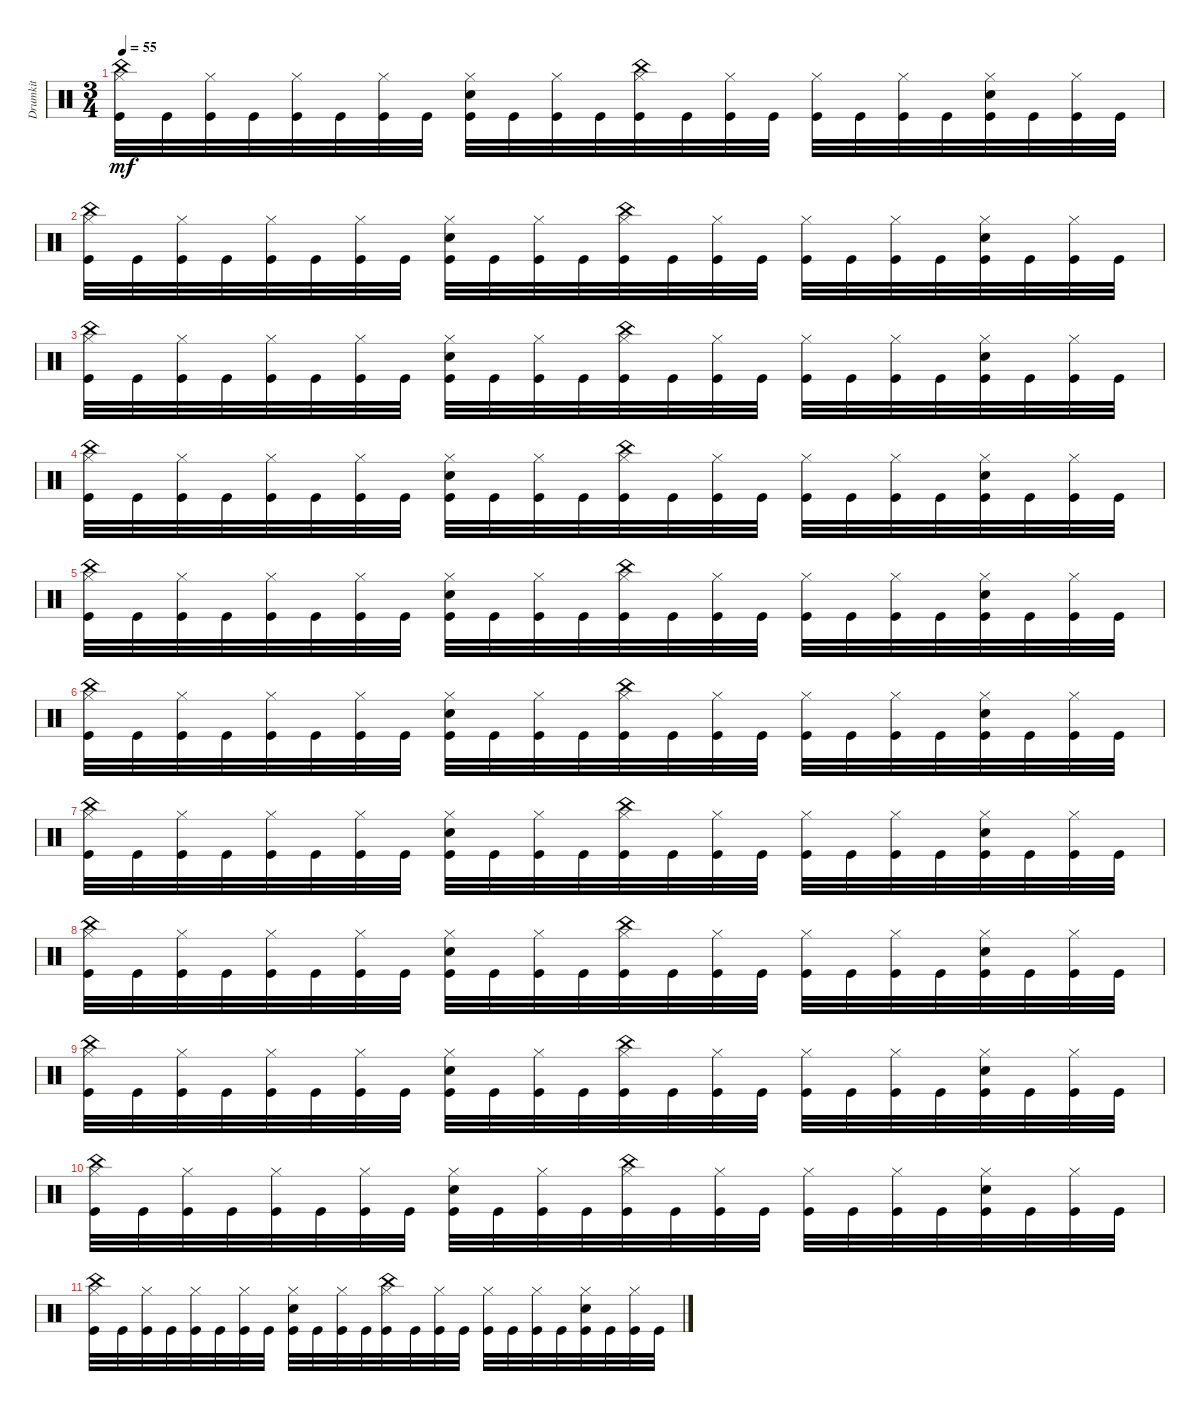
\track ("Drumkit" "Drumkit") {instrument percussion}
\staff {score}
\articulation defaults
\ts (3 4)
\tempo 55
\clef neutral
\ks c
("Kick (hit)" "Hi-Hat (closed)" "China (hit)").32{dy mf} "Kick (hit)".32 ("Kick (hit)" "Hi-Hat (closed)").32 "Kick (hit)".32 ("Kick (hit)" "Hi-Hat (closed)").32 "Kick (hit)".32 ("Kick (hit)" "Hi-Hat (closed)").32 "Kick (hit)".32 ("Kick (hit)" "Hi-Hat (closed)" "Snare (hit) 2").32 "Kick (hit)".32 ("Kick (hit)" "Hi-Hat (closed)").32 "Kick (hit)".32 ("Kick (hit)" "Hi-Hat (closed)" "China (hit)").32 "Kick (hit)".32 ("Kick (hit)" "Hi-Hat (closed)").32 "Kick (hit)".32 ("Kick (hit)" "Hi-Hat (closed)").32 "Kick (hit)".32 ("Kick (hit)" "Hi-Hat (closed)").32 "Kick (hit)".32 ("Kick (hit)" "Hi-Hat (closed)" "Snare (hit) 2").32 "Kick (hit)".32 ("Kick (hit)" "Hi-Hat (closed)").32 "Kick (hit)".32 |
("Kick (hit)" "Hi-Hat (closed)" "China (hit)").32 "Kick (hit)".32 ("Kick (hit)" "Hi-Hat (closed)").32 "Kick (hit)".32 ("Kick (hit)" "Hi-Hat (closed)").32 "Kick (hit)".32 ("Kick (hit)" "Hi-Hat (closed)").32 "Kick (hit)".32 ("Kick (hit)" "Hi-Hat (closed)" "Snare (hit) 2").32 "Kick (hit)".32 ("Kick (hit)" "Hi-Hat (closed)").32 "Kick (hit)".32 ("Kick (hit)" "Hi-Hat (closed)" "China (hit)").32 "Kick (hit)".32 ("Kick (hit)" "Hi-Hat (closed)").32 "Kick (hit)".32 ("Kick (hit)" "Hi-Hat (closed)").32 "Kick (hit)".32 ("Kick (hit)" "Hi-Hat (closed)").32 "Kick (hit)".32 ("Kick (hit)" "Hi-Hat (closed)" "Snare (hit) 2").32 "Kick (hit)".32 ("Kick (hit)" "Hi-Hat (closed)").32 "Kick (hit)".32 |
("Kick (hit)" "Hi-Hat (closed)" "China (hit)").32 "Kick (hit)".32 ("Kick (hit)" "Hi-Hat (closed)").32 "Kick (hit)".32 ("Kick (hit)" "Hi-Hat (closed)").32 "Kick (hit)".32 ("Kick (hit)" "Hi-Hat (closed)").32 "Kick (hit)".32 ("Kick (hit)" "Hi-Hat (closed)" "Snare (hit) 2").32 "Kick (hit)".32 ("Kick (hit)" "Hi-Hat (closed)").32 "Kick (hit)".32 ("Kick (hit)" "Hi-Hat (closed)" "China (hit)").32 "Kick (hit)".32 ("Kick (hit)" "Hi-Hat (closed)").32 "Kick (hit)".32 ("Kick (hit)" "Hi-Hat (closed)").32 "Kick (hit)".32 ("Kick (hit)" "Hi-Hat (closed)").32 "Kick (hit)".32 ("Kick (hit)" "Hi-Hat (closed)" "Snare (hit) 2").32 "Kick (hit)".32 ("Kick (hit)" "Hi-Hat (closed)").32 "Kick (hit)".32 |
("Kick (hit)" "Hi-Hat (closed)" "China (hit)").32 "Kick (hit)".32 ("Kick (hit)" "Hi-Hat (closed)").32 "Kick (hit)".32 ("Kick (hit)" "Hi-Hat (closed)").32 "Kick (hit)".32 ("Kick (hit)" "Hi-Hat (closed)").32 "Kick (hit)".32 ("Kick (hit)" "Hi-Hat (closed)" "Snare (hit) 2").32 "Kick (hit)".32 ("Kick (hit)" "Hi-Hat (closed)").32 "Kick (hit)".32 ("Kick (hit)" "Hi-Hat (closed)" "China (hit)").32 "Kick (hit)".32 ("Kick (hit)" "Hi-Hat (closed)").32 "Kick (hit)".32 ("Kick (hit)" "Hi-Hat (closed)").32 "Kick (hit)".32 ("Kick (hit)" "Hi-Hat (closed)").32 "Kick (hit)".32 ("Kick (hit)" "Hi-Hat (closed)" "Snare (hit) 2").32 "Kick (hit)".32 ("Kick (hit)" "Hi-Hat (closed)").32 "Kick (hit)".32 |
("Kick (hit)" "Hi-Hat (closed)" "China (hit)").32 "Kick (hit)".32 ("Kick (hit)" "Hi-Hat (closed)").32 "Kick (hit)".32 ("Kick (hit)" "Hi-Hat (closed)").32 "Kick (hit)".32 ("Kick (hit)" "Hi-Hat (closed)").32 "Kick (hit)".32 ("Kick (hit)" "Hi-Hat (closed)" "Snare (hit) 2").32 "Kick (hit)".32 ("Kick (hit)" "Hi-Hat (closed)").32 "Kick (hit)".32 ("Kick (hit)" "Hi-Hat (closed)" "China (hit)").32 "Kick (hit)".32 ("Kick (hit)" "Hi-Hat (closed)").32 "Kick (hit)".32 ("Kick (hit)" "Hi-Hat (closed)").32 "Kick (hit)".32 ("Kick (hit)" "Hi-Hat (closed)").32 "Kick (hit)".32 ("Kick (hit)" "Hi-Hat (closed)" "Snare (hit) 2").32 "Kick (hit)".32 ("Kick (hit)" "Hi-Hat (closed)").32 "Kick (hit)".32 |
("Kick (hit)" "Hi-Hat (closed)" "China (hit)").32 "Kick (hit)".32 ("Kick (hit)" "Hi-Hat (closed)").32 "Kick (hit)".32 ("Kick (hit)" "Hi-Hat (closed)").32 "Kick (hit)".32 ("Kick (hit)" "Hi-Hat (closed)").32 "Kick (hit)".32 ("Kick (hit)" "Hi-Hat (closed)" "Snare (hit) 2").32 "Kick (hit)".32 ("Kick (hit)" "Hi-Hat (closed)").32 "Kick (hit)".32 ("Kick (hit)" "Hi-Hat (closed)" "China (hit)").32 "Kick (hit)".32 ("Kick (hit)" "Hi-Hat (closed)").32 "Kick (hit)".32 ("Kick (hit)" "Hi-Hat (closed)").32 "Kick (hit)".32 ("Kick (hit)" "Hi-Hat (closed)").32 "Kick (hit)".32 ("Kick (hit)" "Hi-Hat (closed)" "Snare (hit) 2").32 "Kick (hit)".32 ("Kick (hit)" "Hi-Hat (closed)").32 "Kick (hit)".32 |
("Kick (hit)" "Hi-Hat (closed)" "China (hit)").32 "Kick (hit)".32 ("Kick (hit)" "Hi-Hat (closed)").32 "Kick (hit)".32 ("Kick (hit)" "Hi-Hat (closed)").32 "Kick (hit)".32 ("Kick (hit)" "Hi-Hat (closed)").32 "Kick (hit)".32 ("Kick (hit)" "Hi-Hat (closed)" "Snare (hit) 2").32 "Kick (hit)".32 ("Kick (hit)" "Hi-Hat (closed)").32 "Kick (hit)".32 ("Kick (hit)" "Hi-Hat (closed)" "China (hit)").32 "Kick (hit)".32 ("Kick (hit)" "Hi-Hat (closed)").32 "Kick (hit)".32 ("Kick (hit)" "Hi-Hat (closed)").32 "Kick (hit)".32 ("Kick (hit)" "Hi-Hat (closed)").32 "Kick (hit)".32 ("Kick (hit)" "Hi-Hat (closed)" "Snare (hit) 2").32 "Kick (hit)".32 ("Kick (hit)" "Hi-Hat (closed)").32 "Kick (hit)".32 |
("Kick (hit)" "Hi-Hat (closed)" "China (hit)").32 "Kick (hit)".32 ("Kick (hit)" "Hi-Hat (closed)").32 "Kick (hit)".32 ("Kick (hit)" "Hi-Hat (closed)").32 "Kick (hit)".32 ("Kick (hit)" "Hi-Hat (closed)").32 "Kick (hit)".32 ("Kick (hit)" "Hi-Hat (closed)" "Snare (hit) 2").32 "Kick (hit)".32 ("Kick (hit)" "Hi-Hat (closed)").32 "Kick (hit)".32 ("Kick (hit)" "Hi-Hat (closed)" "China (hit)").32 "Kick (hit)".32 ("Kick (hit)" "Hi-Hat (closed)").32 "Kick (hit)".32 ("Kick (hit)" "Hi-Hat (closed)").32 "Kick (hit)".32 ("Kick (hit)" "Hi-Hat (closed)").32 "Kick (hit)".32 ("Kick (hit)" "Hi-Hat (closed)" "Snare (hit) 2").32 "Kick (hit)".32 ("Kick (hit)" "Hi-Hat (closed)").32 "Kick (hit)".32 |
("Kick (hit)" "Hi-Hat (closed)" "China (hit)").32 "Kick (hit)".32 ("Kick (hit)" "Hi-Hat (closed)").32 "Kick (hit)".32 ("Kick (hit)" "Hi-Hat (closed)").32 "Kick (hit)".32 ("Kick (hit)" "Hi-Hat (closed)").32 "Kick (hit)".32 ("Kick (hit)" "Hi-Hat (closed)" "Snare (hit) 2").32 "Kick (hit)".32 ("Kick (hit)" "Hi-Hat (closed)").32 "Kick (hit)".32 ("Kick (hit)" "Hi-Hat (closed)" "China (hit)").32 "Kick (hit)".32 ("Kick (hit)" "Hi-Hat (closed)").32 "Kick (hit)".32 ("Kick (hit)" "Hi-Hat (closed)").32 "Kick (hit)".32 ("Kick (hit)" "Hi-Hat (closed)").32 "Kick (hit)".32 ("Kick (hit)" "Hi-Hat (closed)" "Snare (hit) 2").32 "Kick (hit)".32 ("Kick (hit)" "Hi-Hat (closed)").32 "Kick (hit)".32 |
("Kick (hit)" "Hi-Hat (closed)" "China (hit)").32 "Kick (hit)".32 ("Kick (hit)" "Hi-Hat (closed)").32 "Kick (hit)".32 ("Kick (hit)" "Hi-Hat (closed)").32 "Kick (hit)".32 ("Kick (hit)" "Hi-Hat (closed)").32 "Kick (hit)".32 ("Kick (hit)" "Hi-Hat (closed)" "Snare (hit) 2").32 "Kick (hit)".32 ("Kick (hit)" "Hi-Hat (closed)").32 "Kick (hit)".32 ("Kick (hit)" "Hi-Hat (closed)" "China (hit)").32 "Kick (hit)".32 ("Kick (hit)" "Hi-Hat (closed)").32 "Kick (hit)".32 ("Kick (hit)" "Hi-Hat (closed)").32 "Kick (hit)".32 ("Kick (hit)" "Hi-Hat (closed)").32 "Kick (hit)".32 ("Kick (hit)" "Hi-Hat (closed)" "Snare (hit) 2").32 "Kick (hit)".32 ("Kick (hit)" "Hi-Hat (closed)").32 "Kick (hit)".32 |
("Kick (hit)" "Hi-Hat (closed)" "China (hit)").32 "Kick (hit)".32 ("Kick (hit)" "Hi-Hat (closed)").32 "Kick (hit)".32 ("Kick (hit)" "Hi-Hat (closed)").32 "Kick (hit)".32 ("Kick (hit)" "Hi-Hat (closed)").32 "Kick (hit)".32 ("Kick (hit)" "Hi-Hat (closed)" "Snare (hit) 2").32 "Kick (hit)".32 ("Kick (hit)" "Hi-Hat (closed)").32 "Kick (hit)".32 ("Kick (hit)" "Hi-Hat (closed)" "China (hit)").32 "Kick (hit)".32 ("Kick (hit)" "Hi-Hat (closed)").32 "Kick (hit)".32 ("Kick (hit)" "Hi-Hat (closed)").32 "Kick (hit)".32 ("Kick (hit)" "Hi-Hat (closed)").32 "Kick (hit)".32 ("Kick (hit)" "Hi-Hat (closed)" "Snare (hit) 2").32 "Kick (hit)".32 ("Kick (hit)" "Hi-Hat (closed)").32 "Kick (hit)".32
